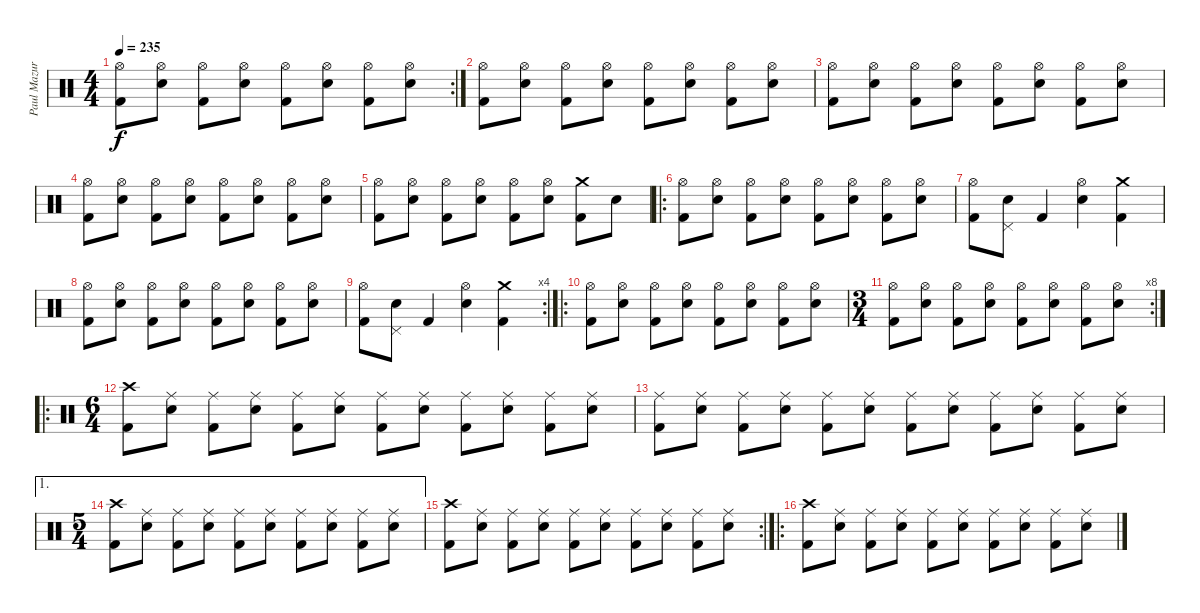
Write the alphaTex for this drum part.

\track ("Paul Mazurkiewicz" "Paul Mazur") {instrument percussion}
\staff {score}
\articulation defaults
\rc 2
\ts (4 4)
\tempo 235
\clef neutral
\ks c
("Hi-Hat (open)" "Kick (hit) 2").8{dy f} ("Hi-Hat (open)" "Electric Snare (hit)").8 ("Hi-Hat (open)" "Kick (hit) 2").8 ("Hi-Hat (open)" "Electric Snare (hit)").8 ("Hi-Hat (open)" "Kick (hit) 2").8 ("Hi-Hat (open)" "Electric Snare (hit)").8 ("Hi-Hat (open)" "Kick (hit) 2").8 ("Hi-Hat (open)" "Electric Snare (hit)").8 |
("Hi-Hat (open)" "Kick (hit) 2").8 ("Hi-Hat (open)" "Electric Snare (hit)").8 ("Hi-Hat (open)" "Kick (hit) 2").8 ("Hi-Hat (open)" "Electric Snare (hit)").8 ("Hi-Hat (open)" "Kick (hit) 2").8 ("Hi-Hat (open)" "Electric Snare (hit)").8 ("Hi-Hat (open)" "Kick (hit) 2").8 ("Hi-Hat (open)" "Electric Snare (hit)").8 |
("Hi-Hat (open)" "Kick (hit) 2").8 ("Hi-Hat (open)" "Electric Snare (hit)").8 ("Hi-Hat (open)" "Kick (hit) 2").8 ("Hi-Hat (open)" "Electric Snare (hit)").8 ("Hi-Hat (open)" "Kick (hit) 2").8 ("Hi-Hat (open)" "Electric Snare (hit)").8 ("Hi-Hat (open)" "Kick (hit) 2").8 ("Hi-Hat (open)" "Electric Snare (hit)").8 |
("Hi-Hat (open)" "Kick (hit) 2").8 ("Hi-Hat (open)" "Electric Snare (hit)").8 ("Hi-Hat (open)" "Kick (hit) 2").8 ("Hi-Hat (open)" "Electric Snare (hit)").8 ("Hi-Hat (open)" "Kick (hit) 2").8 ("Hi-Hat (open)" "Electric Snare (hit)").8 ("Hi-Hat (open)" "Kick (hit) 2").8 ("Hi-Hat (open)" "Electric Snare (hit)").8 |
("Hi-Hat (open)" "Kick (hit) 2").8 ("Hi-Hat (open)" "Electric Snare (hit)").8 ("Hi-Hat (open)" "Kick (hit) 2").8 ("Hi-Hat (open)" "Electric Snare (hit)").8 ("Hi-Hat (open)" "Kick (hit) 2").8 ("Hi-Hat (open)" "Electric Snare (hit)").8 ("Crash medium (hit)" "Kick (hit) 2").8 "Electric Snare (hit)".8 |
\ro
("Hi-Hat (open)" "Kick (hit) 2").8 ("Hi-Hat (open)" "Electric Snare (hit)").8 ("Hi-Hat (open)" "Kick (hit) 2").8 ("Hi-Hat (open)" "Electric Snare (hit)").8 ("Hi-Hat (open)" "Kick (hit) 2").8 ("Hi-Hat (open)" "Electric Snare (hit)").8 ("Hi-Hat (open)" "Kick (hit) 2").8 ("Hi-Hat (open)" "Electric Snare (hit)").8 |
("Hi-Hat (open)" "Kick (hit) 2").8 ("Pedal Hi-Hat (hit)" "Electric Snare (hit)").8 "Kick (hit) 2".4 ("Hi-Hat (open)" "Electric Snare (hit)").4 ("Crash medium (hit)" "Kick (hit) 2").4 |
("Hi-Hat (open)" "Kick (hit) 2").8 ("Hi-Hat (open)" "Electric Snare (hit)").8 ("Hi-Hat (open)" "Kick (hit) 2").8 ("Hi-Hat (open)" "Electric Snare (hit)").8 ("Hi-Hat (open)" "Kick (hit) 2").8 ("Hi-Hat (open)" "Electric Snare (hit)").8 ("Hi-Hat (open)" "Kick (hit) 2").8 ("Hi-Hat (open)" "Electric Snare (hit)").8 |
\rc 4
("Hi-Hat (open)" "Kick (hit) 2").8 ("Pedal Hi-Hat (hit)" "Electric Snare (hit)").8 "Kick (hit) 2".4 ("Hi-Hat (open)" "Electric Snare (hit)").4 ("Crash medium (hit)" "Kick (hit) 2").4 |
\ro
("Hi-Hat (open)" "Kick (hit) 2").8 ("Hi-Hat (open)" "Electric Snare (hit)").8 ("Hi-Hat (open)" "Kick (hit) 2").8 ("Hi-Hat (open)" "Electric Snare (hit)").8 ("Hi-Hat (open)" "Kick (hit) 2").8 ("Hi-Hat (open)" "Electric Snare (hit)").8 ("Hi-Hat (open)" "Kick (hit) 2").8 ("Hi-Hat (open)" "Electric Snare (hit)").8 |
\rc 8
\ts (3 4)
("Hi-Hat (open)" "Kick (hit) 2").8 ("Hi-Hat (open)" "Electric Snare (hit)").8 ("Hi-Hat (open)" "Kick (hit) 2").8 ("Hi-Hat (open)" "Electric Snare (hit)").8 ("Hi-Hat (open)" "Kick (hit) 2").8 ("Hi-Hat (open)" "Electric Snare (hit)").8 ("Hi-Hat (open)" "Kick (hit) 2").8 ("Hi-Hat (open)" "Electric Snare (hit)").8 |
\ro
\ts (6 4)
("Crash high (hit)" "Kick (hit) 2").8 ("Ride (middle)" "Electric Snare (hit)").8 ("Ride (middle)" "Kick (hit) 2").8 ("Ride (middle)" "Electric Snare (hit)").8 ("Ride (middle)" "Kick (hit) 2").8 ("Ride (middle)" "Electric Snare (hit)").8 ("Ride (middle)" "Kick (hit) 2").8 ("Ride (middle)" "Electric Snare (hit)").8 ("Ride (middle)" "Kick (hit) 2").8 ("Ride (middle)" "Electric Snare (hit)").8 ("Ride (middle)" "Kick (hit) 2").8 ("Ride (middle)" "Electric Snare (hit)").8 |
("Ride (middle)" "Kick (hit) 2").8 ("Ride (middle)" "Electric Snare (hit)").8 ("Ride (middle)" "Kick (hit) 2").8 ("Ride (middle)" "Electric Snare (hit)").8 ("Ride (middle)" "Kick (hit) 2").8 ("Ride (middle)" "Electric Snare (hit)").8 ("Ride (middle)" "Kick (hit) 2").8 ("Ride (middle)" "Electric Snare (hit)").8 ("Ride (middle)" "Kick (hit) 2").8 ("Ride (middle)" "Electric Snare (hit)").8 ("Ride (middle)" "Kick (hit) 2").8 ("Ride (middle)" "Electric Snare (hit)").8 |
\ae 1
\ts (5 4)
("Crash high (hit)" "Kick (hit) 2").8 ("Ride (middle)" "Electric Snare (hit)").8 ("Ride (middle)" "Kick (hit) 2").8 ("Ride (middle)" "Electric Snare (hit)").8 ("Ride (middle)" "Kick (hit) 2").8 ("Ride (middle)" "Electric Snare (hit)").8 ("Ride (middle)" "Kick (hit) 2").8 ("Ride (middle)" "Electric Snare (hit)").8 ("Ride (middle)" "Kick (hit) 2").8 ("Ride (middle)" "Electric Snare (hit)").8 |
\rc 2
("Crash high (hit)" "Kick (hit) 2").8 ("Ride (middle)" "Electric Snare (hit)").8 ("Ride (middle)" "Kick (hit) 2").8 ("Ride (middle)" "Electric Snare (hit)").8 ("Ride (middle)" "Kick (hit) 2").8 ("Ride (middle)" "Electric Snare (hit)").8 ("Ride (middle)" "Kick (hit) 2").8 ("Ride (middle)" "Electric Snare (hit)").8 ("Ride (middle)" "Kick (hit) 2").8 ("Ride (middle)" "Electric Snare (hit)").8 |
\ro
("Crash high (hit)" "Kick (hit) 2").8 ("Ride (middle)" "Electric Snare (hit)").8 ("Ride (middle)" "Kick (hit) 2").8 ("Ride (middle)" "Electric Snare (hit)").8 ("Ride (middle)" "Kick (hit) 2").8 ("Ride (middle)" "Electric Snare (hit)").8 ("Ride (middle)" "Kick (hit) 2").8 ("Ride (middle)" "Electric Snare (hit)").8 ("Ride (middle)" "Kick (hit) 2").8 ("Ride (middle)" "Electric Snare (hit)").8
